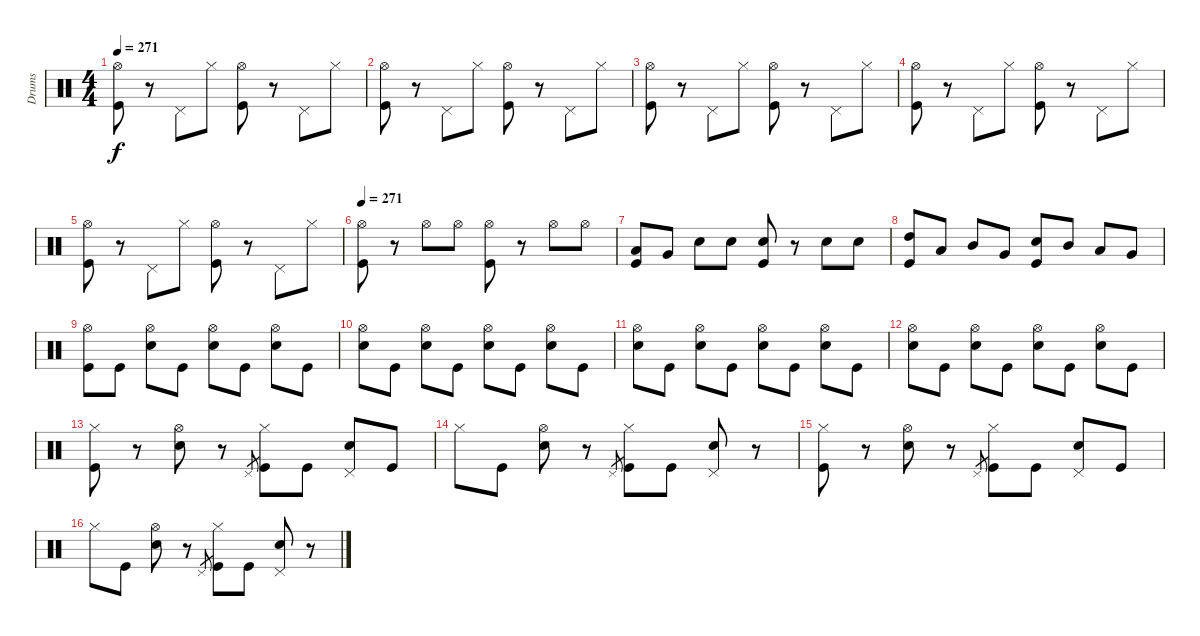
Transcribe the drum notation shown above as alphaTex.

\track ("Drums" "Drums") {instrument percussion}
\staff {score}
\articulation defaults
\ts (4 4)
\tempo 271
\clef neutral
\ks c
("Hi-Hat (open)" "Kick (hit)").8{dy f} r.8 "Pedal Hi-Hat (hit)".8 "Hi-Hat (closed)".8 ("Hi-Hat (open)" "Kick (hit)").8 r.8 "Pedal Hi-Hat (hit)".8 "Hi-Hat (closed)".8 |
("Hi-Hat (open)" "Kick (hit)").8 r.8 "Pedal Hi-Hat (hit)".8 "Hi-Hat (closed)".8 ("Hi-Hat (open)" "Kick (hit)").8 r.8 "Pedal Hi-Hat (hit)".8 "Hi-Hat (closed)".8 |
("Hi-Hat (open)" "Kick (hit)").8 r.8 "Pedal Hi-Hat (hit)".8 "Hi-Hat (closed)".8 ("Hi-Hat (open)" "Kick (hit)").8 r.8 "Pedal Hi-Hat (hit)".8 "Hi-Hat (closed)".8 |
("Hi-Hat (open)" "Kick (hit)").8 r.8 "Pedal Hi-Hat (hit)".8 "Hi-Hat (closed)".8 ("Hi-Hat (open)" "Kick (hit)").8 r.8 "Pedal Hi-Hat (hit)".8 "Hi-Hat (closed)".8 |
("Hi-Hat (open)" "Kick (hit)").8 r.8 "Pedal Hi-Hat (hit)".8 "Hi-Hat (closed)".8 ("Hi-Hat (open)" "Kick (hit)").8 r.8 "Pedal Hi-Hat (hit)".8 "Hi-Hat (closed)".8 |
\tempo 271
("Hi-Hat (open)" "Kick (hit)").8 r.8 "Hi-Hat (open)".8 "Hi-Hat (open)".8 ("Hi-Hat (open)" "Kick (hit)").8 r.8 "Hi-Hat (open)".8 "Hi-Hat (open)".8 |
("Low Tom (hit)" "Kick (hit)").8{volume 12} "Very Low Tom (hit)".8 "Snare (hit) 2".8 "Snare (hit) 2".8 ("Snare (hit) 2" "Kick (hit)").8 r.8 "Snare (hit) 2".8 "Snare (hit) 2".8 |
("High Tom (hit)" "Kick (hit)").8 "Low Tom (hit)".8 "Mid Tom (hit)".8 "Very Low Tom (hit)".8 ("Electric Snare (hit)" "Kick (hit)").8 "Mid Tom (hit)".8 "Low Tom (hit)".8 "Very Low Tom (hit)".8 |
("Hi-Hat (open)" "Kick (hit)").8 "Kick (hit)".8 ("Hi-Hat (open)" "Electric Snare (hit)").8 "Kick (hit)".8 ("Hi-Hat (open)" "Electric Snare (hit)").8 "Kick (hit)".8 ("Hi-Hat (open)" "Electric Snare (hit)").8 "Kick (hit)".8 |
("Hi-Hat (open)" "Electric Snare (hit)").8 "Kick (hit)".8 ("Hi-Hat (open)" "Electric Snare (hit)").8 "Kick (hit)".8 ("Hi-Hat (open)" "Electric Snare (hit)").8 "Kick (hit)".8 ("Hi-Hat (open)" "Electric Snare (hit)").8 "Kick (hit)".8 |
("Hi-Hat (open)" "Electric Snare (hit)").8 "Kick (hit)".8 ("Hi-Hat (open)" "Electric Snare (hit)").8 "Kick (hit)".8 ("Hi-Hat (open)" "Electric Snare (hit)").8 "Kick (hit)".8 ("Hi-Hat (open)" "Electric Snare (hit)").8 "Kick (hit)".8 |
("Hi-Hat (open)" "Electric Snare (hit)").8 "Kick (hit)".8 ("Hi-Hat (open)" "Electric Snare (hit)").8 "Kick (hit)".8 ("Hi-Hat (open)" "Electric Snare (hit)").8 "Kick (hit)".8 ("Hi-Hat (open)" "Electric Snare (hit)").8 "Kick (hit)".8 |
("Hi-Hat (closed)" "Kick (hit)").8 r.8 ("Hi-Hat (open)" "Electric Snare (hit)").8 r.8 "Pedal Hi-Hat (hit)".8{gr} ("Hi-Hat (closed)" "Kick (hit)").8 "Kick (hit)".8 ("Pedal Hi-Hat (hit)" "Electric Snare (hit)").8 "Kick (hit)".8 |
"Hi-Hat (closed)".8 "Kick (hit)".8 ("Hi-Hat (open)" "Electric Snare (hit)").8 r.8 "Pedal Hi-Hat (hit)".8{gr} ("Hi-Hat (closed)" "Kick (hit)").8 "Kick (hit)".8 ("Pedal Hi-Hat (hit)" "Electric Snare (hit)").8 r.8 |
("Hi-Hat (closed)" "Kick (hit)").8 r.8 ("Hi-Hat (open)" "Electric Snare (hit)").8 r.8 "Pedal Hi-Hat (hit)".8{gr} ("Hi-Hat (closed)" "Kick (hit)").8 "Kick (hit)".8 ("Pedal Hi-Hat (hit)" "Electric Snare (hit)").8 "Kick (hit)".8 |
"Hi-Hat (closed)".8 "Kick (hit)".8 ("Hi-Hat (open)" "Electric Snare (hit)").8 r.8 "Pedal Hi-Hat (hit)".8{gr} ("Hi-Hat (closed)" "Kick (hit)").8 "Kick (hit)".8 ("Pedal Hi-Hat (hit)" "Electric Snare (hit)").8 r.8
